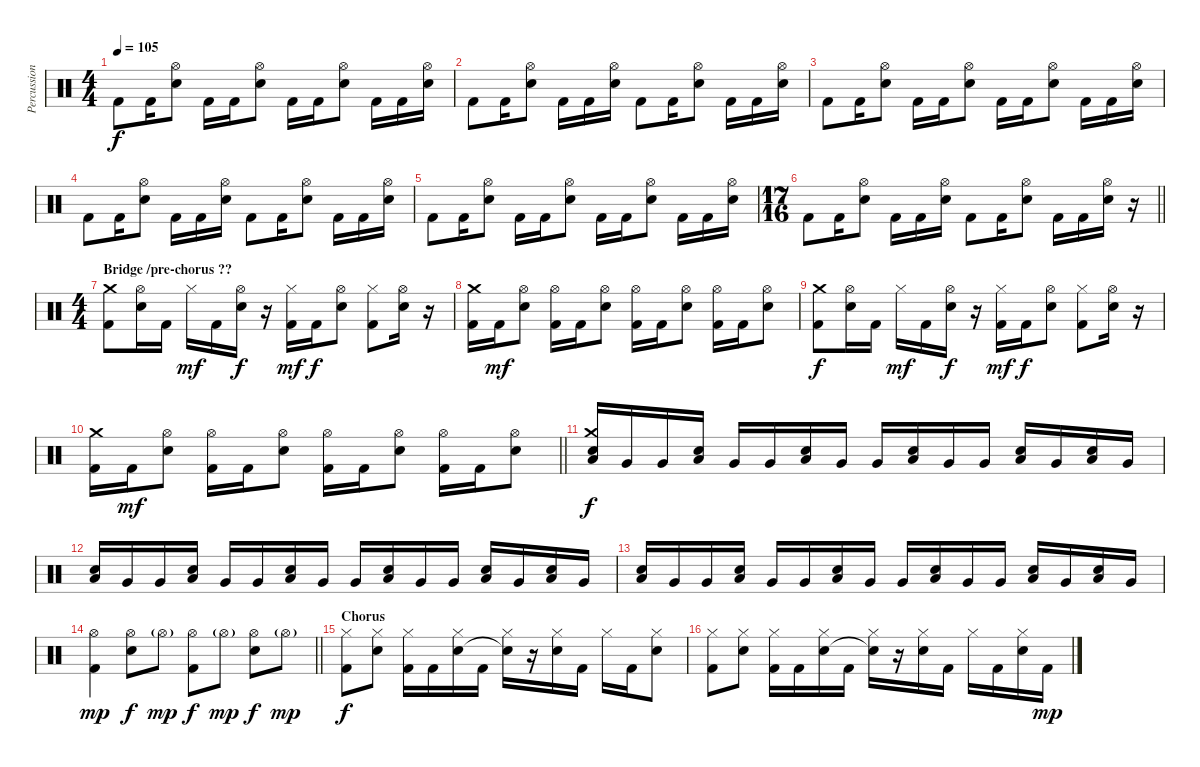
\track ("Percussion" "Percussion") {instrument percussion}
\staff {score}
\articulation defaults
\ts (4 4)
\tempo 105
\clef neutral
\ks c "Kick (hit) 2".8{dy f} "Kick (hit) 2".16
("Hi-Hat (open)" "Snare (hit) 2").8 "Kick (hit) 2".16 "Kick (hit) 2".16 ("Hi-Hat (open)" "Snare (hit) 2").8 "Kick (hit) 2".16 "Kick (hit) 2".16 ("Hi-Hat (open)" "Snare (hit) 2").8 "Kick (hit) 2".16 "Kick (hit) 2".16 ("Hi-Hat (open)" "Snare (hit) 2").16 |
"Kick (hit) 2".8 "Kick (hit) 2".16 ("Hi-Hat (open)" "Snare (hit) 2").8 "Kick (hit) 2".16 "Kick (hit) 2".16 ("Hi-Hat (open)" "Snare (hit) 2").16 "Kick (hit) 2".8 "Kick (hit) 2".16 ("Hi-Hat (open)" "Snare (hit) 2").8 "Kick (hit) 2".16 "Kick (hit) 2".16 ("Hi-Hat (open)" "Snare (hit) 2").16 |
"Kick (hit) 2".8 "Kick (hit) 2".16 ("Hi-Hat (open)" "Snare (hit) 2").8 "Kick (hit) 2".16 "Kick (hit) 2".16 ("Hi-Hat (open)" "Snare (hit) 2").8 "Kick (hit) 2".16 "Kick (hit) 2".16 ("Hi-Hat (open)" "Snare (hit) 2").8 "Kick (hit) 2".16 "Kick (hit) 2".16 ("Hi-Hat (open)" "Snare (hit) 2").16 |
"Kick (hit) 2".8 "Kick (hit) 2".16 ("Hi-Hat (open)" "Snare (hit) 2").8 "Kick (hit) 2".16 "Kick (hit) 2".16 ("Hi-Hat (open)" "Snare (hit) 2").16 "Kick (hit) 2".8 "Kick (hit) 2".16 ("Hi-Hat (open)" "Snare (hit) 2").8 "Kick (hit) 2".16 "Kick (hit) 2".16 ("Hi-Hat (open)" "Snare (hit) 2").16 |
"Kick (hit) 2".8 "Kick (hit) 2".16 ("Hi-Hat (open)" "Snare (hit) 2").8 "Kick (hit) 2".16 "Kick (hit) 2".16 ("Hi-Hat (open)" "Snare (hit) 2").8 "Kick (hit) 2".16 "Kick (hit) 2".16 ("Hi-Hat (open)" "Snare (hit) 2").8 "Kick (hit) 2".16 "Kick (hit) 2".16 ("Hi-Hat (open)" "Snare (hit) 2").16 |
\ts (17 16)
\barLineRight lightlight "Kick (hit) 2".8 "Kick (hit) 2".16
("Hi-Hat (open)" "Snare (hit) 2").8 "Kick (hit) 2".16 "Kick (hit) 2".16 ("Hi-Hat (open)" "Snare (hit) 2").16 "Kick (hit) 2".8 "Kick (hit) 2".16 ("Hi-Hat (open)" "Snare (hit) 2").8 "Kick (hit) 2".16 "Kick (hit) 2".16 ("Hi-Hat (open)" "Snare (hit) 2").16 r.16 |
\ts (4 4)
\section ("" "Bridge /pre-chorus ??")
("Crash medium (hit)" "Kick (hit) 2").8 ("Hi-Hat (open)" "Snare (hit) 2").16 "Kick (hit) 2".16 "Hi-Hat (closed)".16{dy mf} "Kick (hit) 2".16 ("Hi-Hat (open)" "Snare (hit) 2").16{dy f} r.16 ("Hi-Hat (closed)" "Kick (hit) 2").16{dy mf} "Kick (hit) 2".16{dy f} ("Hi-Hat (open)" "Snare (hit) 2").8 ("Hi-Hat (closed)" "Kick (hit) 2").8 ("Hi-Hat (open)" "Snare (hit) 2").16 r.16 |
("Crash medium (hit)" "Kick (hit) 2").16 "Kick (hit) 2".16{dy mf} ("Hi-Hat (open)" "Snare (hit) 2").8 ("Hi-Hat (open)" "Kick (hit) 2").16 "Kick (hit) 2".16 ("Hi-Hat (open)" "Snare (hit) 2").8 ("Hi-Hat (open)" "Kick (hit) 2").16 "Kick (hit) 2".16 ("Hi-Hat (open)" "Snare (hit) 2").8 ("Hi-Hat (open)" "Kick (hit) 2").16 "Kick (hit) 2".16 ("Hi-Hat (open)" "Snare (hit) 2").8 |
("Crash medium (hit)" "Kick (hit) 2").8{dy f} ("Hi-Hat (open)" "Snare (hit) 2").16 "Kick (hit) 2".16 "Hi-Hat (closed)".16{dy mf} "Kick (hit) 2".16 ("Hi-Hat (open)" "Snare (hit) 2").16{dy f} r.16 ("Hi-Hat (closed)" "Kick (hit) 2").16{dy mf} "Kick (hit) 2".16{dy f} ("Hi-Hat (open)" "Snare (hit) 2").8 ("Hi-Hat (closed)" "Kick (hit) 2").8 ("Hi-Hat (open)" "Snare (hit) 2").16 r.16 |
\barLineRight lightlight
("Crash medium (hit)" "Kick (hit) 2").16 "Kick (hit) 2".16{dy mf} ("Hi-Hat (open)" "Snare (hit) 2").8 ("Hi-Hat (open)" "Kick (hit) 2").16 "Kick (hit) 2".16 ("Hi-Hat (open)" "Snare (hit) 2").8 ("Hi-Hat (open)" "Kick (hit) 2").16 "Kick (hit) 2".16 ("Hi-Hat (open)" "Snare (hit) 2").8 ("Hi-Hat (open)" "Kick (hit) 2").16 "Kick (hit) 2".16 ("Hi-Hat (open)" "Snare (hit) 2").8 |
("Crash medium (hit)" "Low Tom (hit)" "Snare (hit) 2").16{dy f} "Very Low Tom (hit)".16 "Very Low Tom (hit)".16 ("Low Tom (hit)" "Snare (hit) 2").16 "Very Low Tom (hit)".16 "Very Low Tom (hit)".16 ("Low Tom (hit)" "Snare (hit) 2").16 "Very Low Tom (hit)".16 "Very Low Tom (hit)".16 ("Low Tom (hit)" "Snare (hit) 2").16 "Very Low Tom (hit)".16 "Very Low Tom (hit)".16 ("Low Tom (hit)" "Snare (hit) 2").16 "Very Low Tom (hit)".16 ("Low Tom (hit)" "Snare (hit) 2").16 "Very Low Tom (hit)".16 |
("Low Tom (hit)" "Snare (hit) 2").16 "Very Low Tom (hit)".16 "Very Low Tom (hit)".16 ("Low Tom (hit)" "Snare (hit) 2").16 "Very Low Tom (hit)".16 "Very Low Tom (hit)".16 ("Low Tom (hit)" "Snare (hit) 2").16 "Very Low Tom (hit)".16 "Very Low Tom (hit)".16 ("Low Tom (hit)" "Snare (hit) 2").16 "Very Low Tom (hit)".16 "Very Low Tom (hit)".16 ("Low Tom (hit)" "Snare (hit) 2").16 "Very Low Tom (hit)".16 ("Low Tom (hit)" "Snare (hit) 2").16 "Very Low Tom (hit)".16 |
("Low Tom (hit)" "Snare (hit) 2").16 "Very Low Tom (hit)".16 "Very Low Tom (hit)".16 ("Low Tom (hit)" "Snare (hit) 2").16 "Very Low Tom (hit)".16 "Very Low Tom (hit)".16 ("Low Tom (hit)" "Snare (hit) 2").16 "Very Low Tom (hit)".16 "Very Low Tom (hit)".16 ("Low Tom (hit)" "Snare (hit) 2").16 "Very Low Tom (hit)".16 "Very Low Tom (hit)".16 ("Low Tom (hit)" "Snare (hit) 2").16 "Very Low Tom (hit)".16 ("Low Tom (hit)" "Snare (hit) 2").16 "Very Low Tom (hit)".16 |
\barLineRight lightlight
("Hi-Hat (open)" "Kick (hit) 2").4{dy mp} ("Hi-Hat (open)" "Snare (hit) 2").8{dy f} "Hi-Hat (open)"{g}.8{dy mp} ("Hi-Hat (open)" "Kick (hit) 2").8{dy f} "Hi-Hat (open)"{g}.8{dy mp} ("Hi-Hat (open)" "Snare (hit) 2").8{dy f} "Hi-Hat (open)"{g}.8{dy mp} |
\section ("" "Chorus")
("Hi-Hat (closed)" "Kick (hit) 2").8{dy f} ("Hi-Hat (closed)" "Snare (hit) 2").8 ("Hi-Hat (closed)" "Kick (hit) 2").16 "Kick (hit) 2".16 ("Hi-Hat (closed)" "Snare (hit) 2").16 "Kick (hit) 2".16 ("Hi-Hat (closed)" "Snare (hit)"{t}).16 r.16 ("Hi-Hat (closed)" "Snare (hit) 2").16 "Kick (hit) 2".16 "Hi-Hat (closed)".16 "Kick (hit) 2".16 ("Hi-Hat (closed)" "Snare (hit) 2").8 |
("Hi-Hat (closed)" "Kick (hit) 2").8 ("Hi-Hat (closed)" "Snare (hit) 2").8 ("Hi-Hat (closed)" "Kick (hit) 2").16 "Kick (hit) 2".16 ("Hi-Hat (closed)" "Snare (hit) 2").16 "Kick (hit) 2".16 ("Hi-Hat (closed)" "Snare (hit)"{t}).16 r.16 ("Hi-Hat (closed)" "Snare (hit) 2").16 "Kick (hit) 2".16 "Hi-Hat (closed)".16 "Kick (hit) 2".16 ("Hi-Hat (closed)" "Snare (hit) 2").16 "Kick (hit) 2".16{dy mp}
